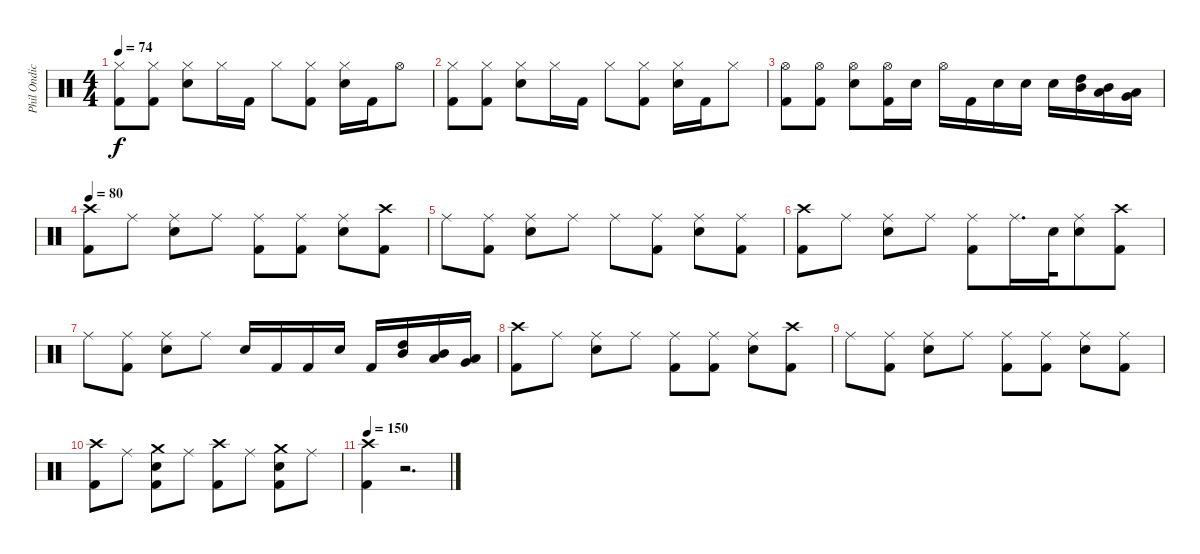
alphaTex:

\track ("Phil Ondich Drums" "Phil Ondic") {instrument percussion}
\staff {score}
\articulation defaults
\ts (4 4)
\tempo 74
\clef neutral
\ks c
("Hi-Hat (closed)" "Kick (hit) 2").8{dy f} ("Hi-Hat (closed)" "Kick (hit) 2").8 ("Hi-Hat (closed)" "Snare (hit) 2").8 "Hi-Hat (closed)".16 "Kick (hit) 2".16 "Hi-Hat (closed)".8 ("Hi-Hat (closed)" "Kick (hit) 2").8 ("Hi-Hat (closed)" "Snare (hit) 2").16 "Kick (hit) 2".16 "Hi-Hat (open)".8 |
("Hi-Hat (closed)" "Kick (hit) 2").8 ("Hi-Hat (closed)" "Kick (hit) 2").8 ("Hi-Hat (closed)" "Snare (hit) 2").8 "Hi-Hat (closed)".16 "Kick (hit) 2".16 "Hi-Hat (closed)".8 ("Hi-Hat (closed)" "Kick (hit) 2").8 ("Hi-Hat (closed)" "Snare (hit) 2").16 "Kick (hit) 2".16 "Hi-Hat (closed)".8 |
("Hi-Hat (open)" "Kick (hit) 2").8 ("Hi-Hat (open)" "Kick (hit) 2").8 ("Hi-Hat (open)" "Snare (hit) 2").8 ("Hi-Hat (open)" "Kick (hit) 2").16 "Snare (hit) 2".16 "Hi-Hat (open)".16 "Kick (hit) 2".16 "Snare (hit) 2".16 "Snare (hit) 2".16 "Snare (hit) 2".16 ("High Tom (hit)" "Mid Tom (hit)").16 ("Mid Tom (hit)" "Low Tom (hit)").16 ("Low Tom (hit)" "Very Low Tom (hit)").16 |
\tempo 80
("Crash high (hit)" "Kick (hit) 2").8 "Ride (middle)".8 ("Ride (middle)" "Snare (hit) 2").8 "Ride (middle)".8 ("Ride (middle)" "Kick (hit) 2").8 ("Ride (middle)" "Kick (hit) 2").8 ("Ride (middle)" "Snare (hit) 2").8 ("Crash high (hit)" "Kick (hit) 2").8 |
"Ride (middle)".8 ("Ride (middle)" "Kick (hit) 2").8 ("Ride (middle)" "Snare (hit) 2").8 "Ride (middle)".8 "Ride (middle)".8 ("Ride (middle)" "Kick (hit) 2").8 ("Ride (middle)" "Snare (hit) 2").8 ("Ride (middle)" "Kick (hit) 2").8 |
("Crash high (hit)" "Kick (hit) 2").8 "Ride (middle)".8 ("Ride (middle)" "Snare (hit) 2").8 "Ride (middle)".8 ("Ride (middle)" "Kick (hit) 2").8 "Ride (middle)".16{d beam merge} "Snare (hit) 2".32{beam merge} ("Ride (middle)" "Snare (hit) 2").8 ("Crash high (hit)" "Kick (hit) 2").8 |
"Ride (middle)".8 ("Ride (middle)" "Kick (hit) 2").8 ("Ride (middle)" "Snare (hit) 2").8 "Ride (middle)".8 "Snare (hit) 2".16 "Kick (hit) 2".16 "Kick (hit) 2".16 "Snare (hit) 2".16 "Kick (hit) 2".16 ("High Tom (hit)" "Mid Tom (hit)").16 ("Mid Tom (hit)" "Low Tom (hit)").16 ("Low Tom (hit)" "Very Low Tom (hit)").16 |
("Crash high (hit)" "Kick (hit) 2").8 "Ride (middle)".8 ("Ride (middle)" "Snare (hit) 2").8 "Ride (middle)".8 ("Ride (middle)" "Kick (hit) 2").8 ("Ride (middle)" "Kick (hit) 2").8 ("Ride (middle)" "Snare (hit) 2").8 ("Crash high (hit)" "Kick (hit) 2").8 |
"Ride (middle)".8 ("Ride (middle)" "Kick (hit) 2").8 ("Ride (middle)" "Snare (hit) 2").8 "Ride (middle)".8 ("Ride (middle)" "Kick (hit) 2").8 ("Ride (middle)" "Kick (hit) 2").8 ("Ride (middle)" "Snare (hit) 2").8 ("Ride (middle)" "Kick (hit) 2").8 |
("Crash high (hit)" "Kick (hit) 2").8 "Ride (middle)".8 ("Crash medium (hit)" "Snare (hit) 2" "Kick (hit) 2").8 "Ride (middle)".8 ("Crash high (hit)" "Kick (hit) 2").8 "Ride (middle)".8 ("Crash medium (hit)" "Snare (hit) 2" "Kick (hit) 2").8 "Ride (middle)".8 |
\tempo 150
("Crash high (hit)" "Kick (hit) 2").4 r.2{d}
